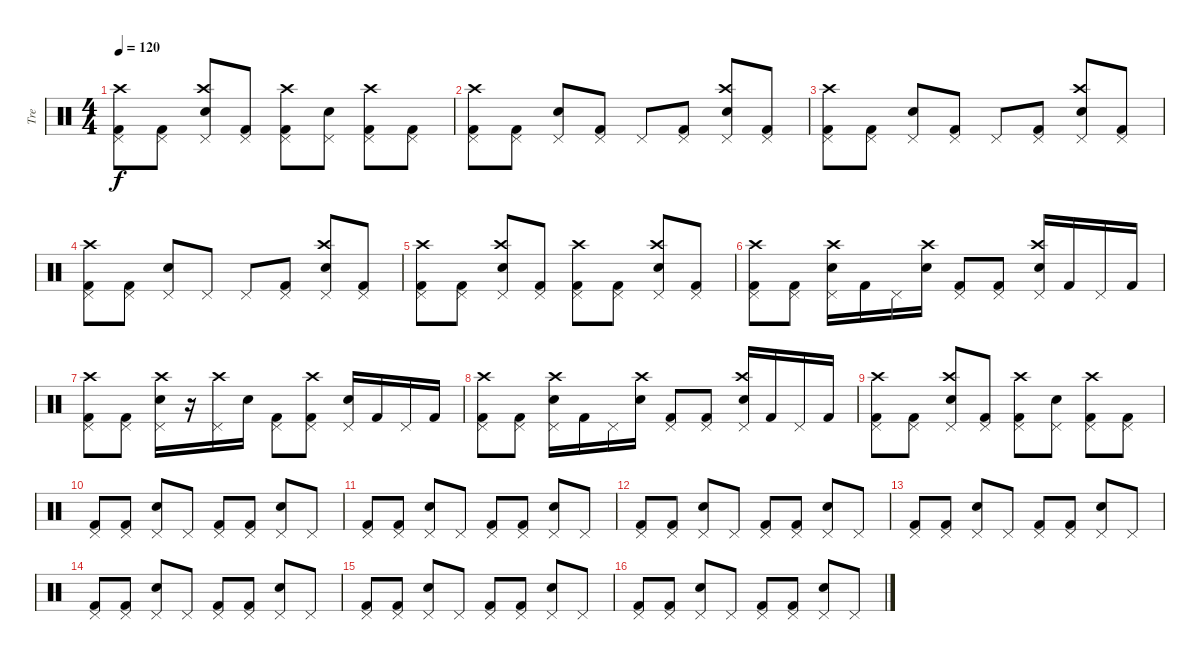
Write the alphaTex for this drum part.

\track ("Tre" "Tre") {instrument percussion}
\staff {score}
\articulation defaults
\ts (4 4)
\tempo 120
\clef neutral
\ks c
("Pedal Hi-Hat (hit)" "Kick (hit) 2" "Crash high (hit)").8{dy f} ("Pedal Hi-Hat (hit)" "Kick (hit) 2").8 ("Pedal Hi-Hat (hit)" "Electric Snare (hit)" "Crash high (hit)").8 ("Pedal Hi-Hat (hit)" "Kick (hit) 2").8 ("Pedal Hi-Hat (hit)" "Kick (hit) 2" "Crash high (hit)").8 ("Pedal Hi-Hat (hit)" "Electric Snare (hit)").8 ("Pedal Hi-Hat (hit)" "Kick (hit) 2" "Crash high (hit)").8 ("Pedal Hi-Hat (hit)" "Kick (hit) 2").8 |
("Pedal Hi-Hat (hit)" "Kick (hit) 2" "Crash high (hit)").8 ("Pedal Hi-Hat (hit)" "Kick (hit) 2").8 ("Pedal Hi-Hat (hit)" "Electric Snare (hit)").8 ("Pedal Hi-Hat (hit)" "Kick (hit) 2").8 "Pedal Hi-Hat (hit)".8 ("Pedal Hi-Hat (hit)" "Kick (hit) 2").8 ("Pedal Hi-Hat (hit)" "Electric Snare (hit)" "Crash high (hit)").8 ("Pedal Hi-Hat (hit)" "Kick (hit) 2").8 |
("Pedal Hi-Hat (hit)" "Kick (hit) 2" "Crash high (hit)").8 ("Pedal Hi-Hat (hit)" "Kick (hit) 2").8 ("Pedal Hi-Hat (hit)" "Electric Snare (hit)").8 ("Pedal Hi-Hat (hit)" "Kick (hit) 2").8 "Pedal Hi-Hat (hit)".8 ("Pedal Hi-Hat (hit)" "Kick (hit) 2").8 ("Pedal Hi-Hat (hit)" "Electric Snare (hit)" "Crash high (hit)").8 ("Pedal Hi-Hat (hit)" "Kick (hit) 2").8 |
("Pedal Hi-Hat (hit)" "Kick (hit) 2" "Crash high (hit)").8 ("Pedal Hi-Hat (hit)" "Kick (hit) 2").8 ("Pedal Hi-Hat (hit)" "Electric Snare (hit)").8 "Pedal Hi-Hat (hit)".8 "Pedal Hi-Hat (hit)".8 ("Pedal Hi-Hat (hit)" "Kick (hit) 2").8 ("Pedal Hi-Hat (hit)" "Electric Snare (hit)" "Crash high (hit)").8 ("Pedal Hi-Hat (hit)" "Kick (hit) 2").8 |
("Pedal Hi-Hat (hit)" "Kick (hit) 2" "Crash high (hit)").8 ("Pedal Hi-Hat (hit)" "Kick (hit) 2").8 ("Pedal Hi-Hat (hit)" "Electric Snare (hit)" "Crash high (hit)").8 ("Pedal Hi-Hat (hit)" "Kick (hit) 2").8 ("Pedal Hi-Hat (hit)" "Kick (hit) 2" "Crash high (hit)").8 ("Pedal Hi-Hat (hit)" "Kick (hit) 2").8 ("Pedal Hi-Hat (hit)" "Electric Snare (hit)" "Crash high (hit)").8 ("Pedal Hi-Hat (hit)" "Kick (hit) 2").8 |
("Pedal Hi-Hat (hit)" "Crash high (hit)" "Kick (hit) 2").8 ("Pedal Hi-Hat (hit)" "Kick (hit) 2").8 ("Pedal Hi-Hat (hit)" "Crash high (hit)" "Electric Snare (hit)").16 "Kick (hit) 2".16 "Pedal Hi-Hat (hit)".16 ("Crash high (hit)" "Electric Snare (hit)").16 ("Pedal Hi-Hat (hit)" "Kick (hit) 2").8 ("Pedal Hi-Hat (hit)" "Kick (hit) 2").8 ("Pedal Hi-Hat (hit)" "Crash high (hit)" "Electric Snare (hit)").16 "Kick (hit) 2".16 "Pedal Hi-Hat (hit)".16 "Kick (hit) 2".16 |
("Pedal Hi-Hat (hit)" "Crash high (hit)" "Kick (hit) 2").8 ("Pedal Hi-Hat (hit)" "Kick (hit) 2").8 ("Pedal Hi-Hat (hit)" "Crash high (hit)" "Electric Snare (hit)").16 r.16 ("Pedal Hi-Hat (hit)" "Crash high (hit)").16 "Electric Snare (hit)".16 ("Pedal Hi-Hat (hit)" "Kick (hit) 2").8 ("Pedal Hi-Hat (hit)" "Crash high (hit)" "Kick (hit) 2").8 ("Pedal Hi-Hat (hit)" "Electric Snare (hit)").16 "Kick (hit) 2".16 "Pedal Hi-Hat (hit)".16 "Kick (hit) 2".16 |
("Pedal Hi-Hat (hit)" "Crash high (hit)" "Kick (hit) 2").8 ("Pedal Hi-Hat (hit)" "Kick (hit) 2").8 ("Pedal Hi-Hat (hit)" "Crash high (hit)" "Electric Snare (hit)").16 "Kick (hit) 2".16 "Pedal Hi-Hat (hit)".16 ("Crash high (hit)" "Electric Snare (hit)").16 ("Pedal Hi-Hat (hit)" "Kick (hit) 2").8 ("Pedal Hi-Hat (hit)" "Kick (hit) 2").8 ("Pedal Hi-Hat (hit)" "Crash high (hit)" "Electric Snare (hit)").16 "Kick (hit) 2".16 "Pedal Hi-Hat (hit)".16 "Kick (hit) 2".16 |
("Pedal Hi-Hat (hit)" "Crash high (hit)" "Kick (hit) 2").8 ("Pedal Hi-Hat (hit)" "Kick (hit) 2").8 ("Pedal Hi-Hat (hit)" "Crash high (hit)" "Electric Snare (hit)").8 ("Pedal Hi-Hat (hit)" "Kick (hit) 2").8 ("Pedal Hi-Hat (hit)" "Crash high (hit)" "Kick (hit) 2").8 ("Pedal Hi-Hat (hit)" "Electric Snare (hit)").8 ("Pedal Hi-Hat (hit)" "Crash high (hit)" "Kick (hit) 2").8 ("Pedal Hi-Hat (hit)" "Kick (hit) 2").8 |
("Pedal Hi-Hat (hit)" "Kick (hit) 2").8 ("Pedal Hi-Hat (hit)" "Kick (hit) 2").8 ("Pedal Hi-Hat (hit)" "Electric Snare (hit)").8 "Pedal Hi-Hat (hit)".8 ("Pedal Hi-Hat (hit)" "Kick (hit) 2").8 ("Pedal Hi-Hat (hit)" "Kick (hit) 2").8 ("Pedal Hi-Hat (hit)" "Electric Snare (hit)").8 "Pedal Hi-Hat (hit)".8 |
("Pedal Hi-Hat (hit)" "Kick (hit) 2").8 ("Pedal Hi-Hat (hit)" "Kick (hit) 2").8 ("Pedal Hi-Hat (hit)" "Electric Snare (hit)").8 "Pedal Hi-Hat (hit)".8 ("Pedal Hi-Hat (hit)" "Kick (hit) 2").8 ("Pedal Hi-Hat (hit)" "Kick (hit) 2").8 ("Pedal Hi-Hat (hit)" "Electric Snare (hit)").8 "Pedal Hi-Hat (hit)".8 |
("Pedal Hi-Hat (hit)" "Kick (hit) 2").8 ("Pedal Hi-Hat (hit)" "Kick (hit) 2").8 ("Pedal Hi-Hat (hit)" "Electric Snare (hit)").8 "Pedal Hi-Hat (hit)".8 ("Pedal Hi-Hat (hit)" "Kick (hit) 2").8 ("Pedal Hi-Hat (hit)" "Kick (hit) 2").8 ("Pedal Hi-Hat (hit)" "Electric Snare (hit)").8 "Pedal Hi-Hat (hit)".8 |
("Pedal Hi-Hat (hit)" "Kick (hit) 2").8 ("Pedal Hi-Hat (hit)" "Kick (hit) 2").8 ("Pedal Hi-Hat (hit)" "Electric Snare (hit)").8 "Pedal Hi-Hat (hit)".8 ("Pedal Hi-Hat (hit)" "Kick (hit) 2").8 ("Pedal Hi-Hat (hit)" "Kick (hit) 2").8 ("Pedal Hi-Hat (hit)" "Electric Snare (hit)").8 "Pedal Hi-Hat (hit)".8 |
("Pedal Hi-Hat (hit)" "Kick (hit) 2").8 ("Pedal Hi-Hat (hit)" "Kick (hit) 2").8 ("Pedal Hi-Hat (hit)" "Electric Snare (hit)").8 "Pedal Hi-Hat (hit)".8 ("Pedal Hi-Hat (hit)" "Kick (hit) 2").8 ("Pedal Hi-Hat (hit)" "Kick (hit) 2").8 ("Pedal Hi-Hat (hit)" "Electric Snare (hit)").8 "Pedal Hi-Hat (hit)".8 |
("Pedal Hi-Hat (hit)" "Kick (hit) 2").8 ("Pedal Hi-Hat (hit)" "Kick (hit) 2").8 ("Pedal Hi-Hat (hit)" "Electric Snare (hit)").8 "Pedal Hi-Hat (hit)".8 ("Pedal Hi-Hat (hit)" "Kick (hit) 2").8 ("Pedal Hi-Hat (hit)" "Kick (hit) 2").8 ("Pedal Hi-Hat (hit)" "Electric Snare (hit)").8 "Pedal Hi-Hat (hit)".8 |
("Pedal Hi-Hat (hit)" "Kick (hit) 2").8 ("Pedal Hi-Hat (hit)" "Kick (hit) 2").8 ("Pedal Hi-Hat (hit)" "Electric Snare (hit)").8 "Pedal Hi-Hat (hit)".8 ("Pedal Hi-Hat (hit)" "Kick (hit) 2").8 ("Pedal Hi-Hat (hit)" "Kick (hit) 2").8 ("Pedal Hi-Hat (hit)" "Electric Snare (hit)").8 "Pedal Hi-Hat (hit)".8
